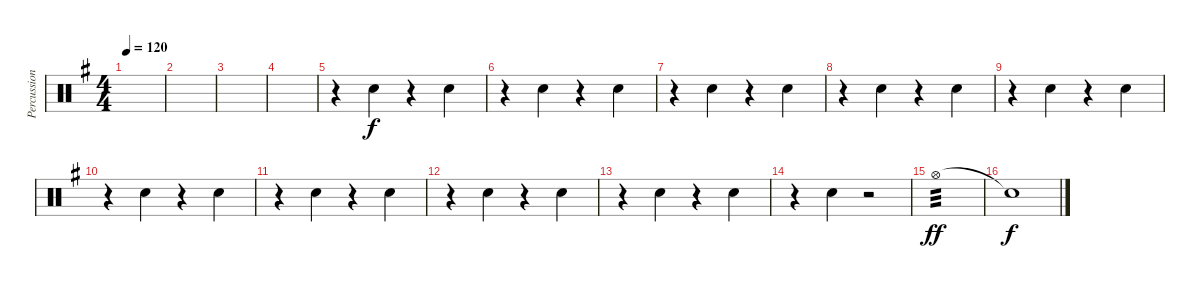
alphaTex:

\track ("Percussion" "Percussion") {instrument percussion}
\staff {score}
\articulation defaults
\ts (4 4)
\tempo 120
\clef neutral
\ks g
|
|
|
|
r.4 "Hand Clap (hit)".4 r.4 "Hand Clap (hit)".4 |
r.4 "Hand Clap (hit)".4 r.4 "Hand Clap (hit)".4 |
r.4 "Hand Clap (hit)".4 r.4 "Hand Clap (hit)".4 |
r.4 "Hand Clap (hit)".4 r.4 "Hand Clap (hit)".4 |
r.4 "Hand Clap (hit)".4 r.4 "Hand Clap (hit)".4 |
r.4 "Hand Clap (hit)".4 r.4 "Hand Clap (hit)".4 |
r.4 "Hand Clap (hit)".4 r.4 "Hand Clap (hit)".4 |
r.4 "Hand Clap (hit)".4 r.4 "Hand Clap (hit)".4 |
r.4 "Hand Clap (hit)".4 r.4 "Hand Clap (hit)".4 |
r.4 "Hand Clap (hit)".4 r.2 |
"Hi-Hat (open)".1{tp 3 dy ff} |
"Snare (hit)"{t}.1{dy f}
